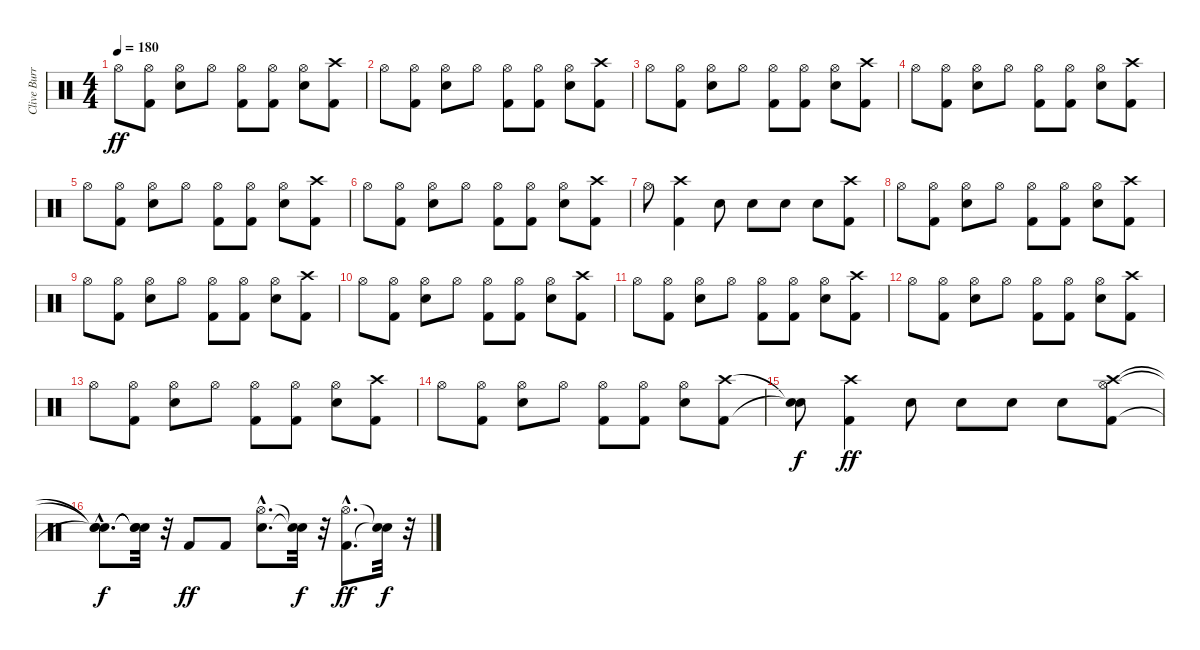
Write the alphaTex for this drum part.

\track ("Clive Burr" "Clive Burr") {instrument percussion}
\staff {score}
\articulation defaults
\ts (4 4)
\tempo 180
\clef neutral
\ks c "Hi-Hat (open)".8{dy ff}
("Kick (hit) 2" "Hi-Hat (open)").8 ("Snare (hit) 2" "Hi-Hat (open)").8 "Hi-Hat (open)".8 ("Kick (hit) 2" "Hi-Hat (open)").8 ("Kick (hit) 2" "Hi-Hat (open)").8 ("Snare (hit) 2" "Hi-Hat (open)").8 ("Kick (hit) 2" "Crash high (hit)").8 |
"Hi-Hat (open)".8 ("Kick (hit) 2" "Hi-Hat (open)").8 ("Snare (hit) 2" "Hi-Hat (open)").8 "Hi-Hat (open)".8 ("Kick (hit) 2" "Hi-Hat (open)").8 ("Kick (hit) 2" "Hi-Hat (open)").8 ("Snare (hit) 2" "Hi-Hat (open)").8 ("Kick (hit) 2" "Crash high (hit)").8 |
"Hi-Hat (open)".8 ("Kick (hit) 2" "Hi-Hat (open)").8 ("Snare (hit) 2" "Hi-Hat (open)").8 "Hi-Hat (open)".8 ("Kick (hit) 2" "Hi-Hat (open)").8 ("Kick (hit) 2" "Hi-Hat (open)").8 ("Snare (hit) 2" "Hi-Hat (open)").8 ("Kick (hit) 2" "Crash high (hit)").8 |
"Hi-Hat (open)".8 ("Kick (hit) 2" "Hi-Hat (open)").8 ("Snare (hit) 2" "Hi-Hat (open)").8 "Hi-Hat (open)".8 ("Kick (hit) 2" "Hi-Hat (open)").8 ("Kick (hit) 2" "Hi-Hat (open)").8 ("Snare (hit) 2" "Hi-Hat (open)").8 ("Kick (hit) 2" "Crash high (hit)").8 |
"Hi-Hat (open)".8 ("Kick (hit) 2" "Hi-Hat (open)").8 ("Snare (hit) 2" "Hi-Hat (open)").8 "Hi-Hat (open)".8 ("Kick (hit) 2" "Hi-Hat (open)").8 ("Kick (hit) 2" "Hi-Hat (open)").8 ("Snare (hit) 2" "Hi-Hat (open)").8 ("Kick (hit) 2" "Crash high (hit)").8 |
"Hi-Hat (open)".8 ("Kick (hit) 2" "Hi-Hat (open)").8 ("Snare (hit) 2" "Hi-Hat (open)").8 "Hi-Hat (open)".8 ("Kick (hit) 2" "Hi-Hat (open)").8 ("Kick (hit) 2" "Hi-Hat (open)").8 ("Snare (hit) 2" "Hi-Hat (open)").8 ("Kick (hit) 2" "Crash high (hit)").8 |
"Hi-Hat (open)".8 ("Kick (hit) 2" "Crash high (hit)").4 "Snare (hit) 2".8 "Snare (hit) 2".8 "Snare (hit) 2".8 "Snare (hit) 2".8 ("Kick (hit) 2" "Crash high (hit)").8 |
"Hi-Hat (open)".8 ("Kick (hit) 2" "Hi-Hat (open)").8 ("Snare (hit) 2" "Hi-Hat (open)").8 "Hi-Hat (open)".8 ("Kick (hit) 2" "Hi-Hat (open)").8 ("Kick (hit) 2" "Hi-Hat (open)").8 ("Snare (hit) 2" "Hi-Hat (open)").8 ("Kick (hit) 2" "Crash high (hit)").8 |
"Hi-Hat (open)".8 ("Kick (hit) 2" "Hi-Hat (open)").8 ("Snare (hit) 2" "Hi-Hat (open)").8 "Hi-Hat (open)".8 ("Kick (hit) 2" "Hi-Hat (open)").8 ("Kick (hit) 2" "Hi-Hat (open)").8 ("Snare (hit) 2" "Hi-Hat (open)").8 ("Kick (hit) 2" "Crash high (hit)").8 |
"Hi-Hat (open)".8 ("Kick (hit) 2" "Hi-Hat (open)").8 ("Snare (hit) 2" "Hi-Hat (open)").8 "Hi-Hat (open)".8 ("Kick (hit) 2" "Hi-Hat (open)").8 ("Kick (hit) 2" "Hi-Hat (open)").8 ("Snare (hit) 2" "Hi-Hat (open)").8 ("Kick (hit) 2" "Crash high (hit)").8 |
"Hi-Hat (open)".8 ("Kick (hit) 2" "Hi-Hat (open)").8 ("Snare (hit) 2" "Hi-Hat (open)").8 "Hi-Hat (open)".8 ("Kick (hit) 2" "Hi-Hat (open)").8 ("Kick (hit) 2" "Hi-Hat (open)").8 ("Snare (hit) 2" "Hi-Hat (open)").8 ("Kick (hit) 2" "Crash high (hit)").8 |
"Hi-Hat (open)".8 ("Kick (hit) 2" "Hi-Hat (open)").8 ("Snare (hit) 2" "Hi-Hat (open)").8 "Hi-Hat (open)".8 ("Kick (hit) 2" "Hi-Hat (open)").8 ("Kick (hit) 2" "Hi-Hat (open)").8 ("Snare (hit) 2" "Hi-Hat (open)").8 ("Kick (hit) 2" "Crash high (hit)").8 |
"Hi-Hat (open)".8 ("Kick (hit) 2" "Hi-Hat (open)").8 ("Snare (hit) 2" "Hi-Hat (open)").8 "Hi-Hat (open)".8 ("Kick (hit) 2" "Hi-Hat (open)").8 ("Kick (hit) 2" "Hi-Hat (open)").8 ("Snare (hit) 2" "Hi-Hat (open)").8 ("Kick (hit) 2" "Crash high (hit)").8 |
"Hi-Hat (open)".8 ("Kick (hit) 2" "Hi-Hat (open)").8 ("Snare (hit) 2" "Hi-Hat (open)").8 "Hi-Hat (open)".8 ("Kick (hit) 2" "Hi-Hat (open)").8 ("Kick (hit) 2" "Hi-Hat (open)").8 ("Snare (hit) 2" "Hi-Hat (open)").8 ("Kick (hit) 2" "Crash high (hit)").8 |
("Snare (hit)"{t} "Snare (hit)"{t}).8{dy f} ("Kick (hit) 2" "Crash high (hit)").4{dy ff} "Snare (hit) 2".8 "Snare (hit) 2".8 "Snare (hit) 2".8 "Snare (hit) 2".8 ("Kick (hit) 2" "Hi-Hat (open)" "Crash high (hit)").8 |
("Snare (hit)"{hac t} "Snare (hit)"{hac t} "Snare (hit)"{hac t}).8{d dy f} ("Snare (hit)"{t} "Snare (hit)"{t} "Snare (hit)"{t}).32 r.32 "Kick (hit) 2".8{dy ff} "Kick (hit) 2".8 ("Snare (hit) 2"{hac} "Hi-Hat (open)"{hac}).8{d} ("Snare (hit)"{t} "Snare (hit)"{t}).32{dy f} r.32 ("Kick (hit) 2"{hac} "Hi-Hat (open)"{hac}).8{d dy ff} ("Snare (hit)"{t} "Snare (hit)"{t}).32{dy f} r.32
